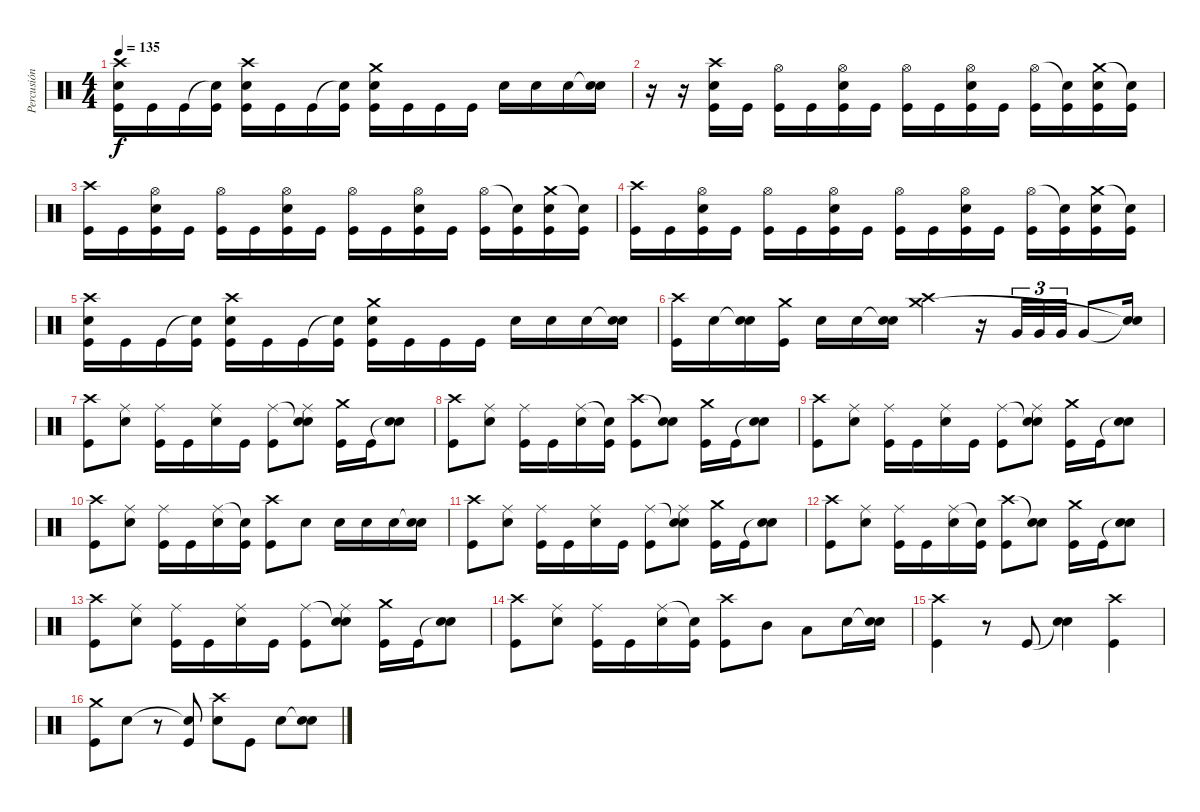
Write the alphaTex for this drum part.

\track ("Percusión" "Percusión") {instrument percussion}
\staff {score}
\articulation defaults
\ts (4 4)
\tempo 135
\clef neutral
\ks c
("Crash high (hit)" "Snare (hit) 2" "Kick (hit)").16{dy f} "Kick (hit)".16 "Kick (hit)".16 ("Snare (hit)"{t} "Kick (hit)").16 ("Crash high (hit)" "Snare (hit) 2" "Kick (hit)").16 "Kick (hit)".16 "Kick (hit)".16 ("Snare (hit)"{t} "Kick (hit)").16 ("Crash medium (hit)" "Snare (hit) 2" "Kick (hit)").16 "Kick (hit)".16 "Kick (hit)".16 "Kick (hit)".16 "Snare (hit) 2".16 "Snare (hit) 2".16 "Snare (hit) 2".16 ("Snare (hit)"{t} "Snare (hit) 2").16 |
r.16 r.16 ("Crash high (hit)" "Snare (hit) 2" "Kick (hit)").16 "Kick (hit)".16 ("Hi-Hat (open)" "Kick (hit)").16 "Kick (hit)".16 ("Hi-Hat (open)" "Snare (hit) 2" "Kick (hit)").16 "Kick (hit)".16 ("Hi-Hat (open)" "Kick (hit)").16 "Kick (hit)".16 ("Hi-Hat (open)" "Snare (hit) 2" "Kick (hit)").16 "Kick (hit)".16 ("Hi-Hat (open)" "Kick (hit)").16 ("Snare (hit)"{t} "Kick (hit)").16 ("Crash medium (hit)" "Snare (hit) 2" "Kick (hit)").16 ("Snare (hit)"{t} "Kick (hit)").16 |
("Crash high (hit)" "Kick (hit)").16 "Kick (hit)".16 ("Hi-Hat (open)" "Snare (hit) 2" "Kick (hit)").16 "Kick (hit)".16 ("Hi-Hat (open)" "Kick (hit)").16 "Kick (hit)".16 ("Hi-Hat (open)" "Snare (hit) 2" "Kick (hit)").16 "Kick (hit)".16 ("Hi-Hat (open)" "Kick (hit)").16 "Kick (hit)".16 ("Hi-Hat (open)" "Snare (hit) 2" "Kick (hit)").16 "Kick (hit)".16 ("Hi-Hat (open)" "Kick (hit)").16 ("Snare (hit)"{t} "Kick (hit)").16 ("Crash medium (hit)" "Snare (hit) 2" "Kick (hit)").16 ("Snare (hit)"{t} "Kick (hit)").16 |
("Crash high (hit)" "Kick (hit)").16 "Kick (hit)".16 ("Hi-Hat (open)" "Snare (hit) 2" "Kick (hit)").16 "Kick (hit)".16 ("Hi-Hat (open)" "Kick (hit)").16 "Kick (hit)".16 ("Hi-Hat (open)" "Snare (hit) 2" "Kick (hit)").16 "Kick (hit)".16 ("Hi-Hat (open)" "Kick (hit)").16 "Kick (hit)".16 ("Hi-Hat (open)" "Snare (hit) 2" "Kick (hit)").16 "Kick (hit)".16 ("Hi-Hat (open)" "Kick (hit)").16 ("Snare (hit)"{t} "Kick (hit)").16 ("Crash medium (hit)" "Snare (hit) 2" "Kick (hit)").16 ("Snare (hit)"{t} "Kick (hit)").16 |
("Crash high (hit)" "Snare (hit) 2" "Kick (hit)").16 "Kick (hit)".16 "Kick (hit)".16 ("Snare (hit)"{t} "Kick (hit)").16 ("Crash high (hit)" "Snare (hit) 2" "Kick (hit)").16 "Kick (hit)".16 "Kick (hit)".16 ("Snare (hit)"{t} "Kick (hit)").16 ("Crash medium (hit)" "Snare (hit) 2" "Kick (hit)").16 "Kick (hit)".16 "Kick (hit)".16 "Kick (hit)".16 "Snare (hit) 2".16 "Snare (hit) 2".16 "Snare (hit) 2".16 ("Snare (hit)"{t} "Snare (hit) 2").16 |
("Crash high (hit)" "Kick (hit)").16 "Snare (hit) 2".16 ("Snare (hit)"{t} "Snare (hit) 2").16 ("Crash medium (hit)" "Kick (hit)").16 "Snare (hit) 2".16 "Snare (hit) 2".16 ("Snare (hit)"{t} "Snare (hit) 2").16 ("Crash high (hit)" "Crash medium (hit)").4 r.16 "Very Low Tom (hit)".32{tu (3 2)} "Very Low Tom (hit)".32{tu (3 2)} "Very Low Tom (hit)".32{tu (3 2)} "Very Low Tom (hit)".8 ("Snare (hit)"{t} "Snare (hit)"{t}).16 |
("Crash high (hit)" "Kick (hit)").8 ("Ride (middle)" "Snare (hit) 2").8 ("Ride (middle)" "Kick (hit)").16 "Kick (hit)".16 ("Ride (middle)" "Snare (hit) 2").16 "Kick (hit)".16 ("Ride (middle)" "Kick (hit)").8 ("Snare (hit)"{t} "Ride (middle)" "Snare (hit) 2").8 ("Crash medium (hit)" "Kick (hit)").16 "Kick (hit)".16 ("Snare (hit)"{t} "Snare (hit) 2").8 |
("Crash high (hit)" "Kick (hit)").8 ("Ride (middle)" "Snare (hit) 2").8 ("Ride (middle)" "Kick (hit)").16 "Kick (hit)".16 ("Ride (middle)" "Snare (hit) 2").16 ("Snare (hit)"{t} "Kick (hit)").16 ("Crash high (hit)" "Kick (hit)").8 ("Snare (hit)"{t} "Snare (hit) 2").8 ("Crash medium (hit)" "Kick (hit)").16 "Kick (hit)".16 ("Snare (hit)"{t} "Snare (hit) 2").8 |
("Crash high (hit)" "Kick (hit)").8 ("Ride (middle)" "Snare (hit) 2").8 ("Ride (middle)" "Kick (hit)").16 "Kick (hit)".16 ("Ride (middle)" "Snare (hit) 2").16 "Kick (hit)".16 ("Ride (middle)" "Kick (hit)").8 ("Snare (hit)"{t} "Ride (middle)" "Snare (hit) 2").8 ("Crash medium (hit)" "Kick (hit)").16 "Kick (hit)".16 ("Snare (hit)"{t} "Snare (hit) 2").8 |
("Crash high (hit)" "Kick (hit)").8 ("Ride (middle)" "Snare (hit) 2").8 ("Ride (middle)" "Kick (hit)").16 "Kick (hit)".16 ("Ride (middle)" "Snare (hit) 2").16 ("Snare (hit)"{t} "Kick (hit)").16 ("Crash high (hit)" "Kick (hit)").8 "Snare (hit) 2".8 "Snare (hit) 2".16 "Snare (hit) 2".16 "Snare (hit) 2".16 ("Snare (hit)"{t} "Snare (hit) 2").16 |
("Crash high (hit)" "Kick (hit)").8 ("Ride (middle)" "Snare (hit) 2").8 ("Ride (middle)" "Kick (hit)").16 "Kick (hit)".16 ("Ride (middle)" "Snare (hit) 2").16 "Kick (hit)".16 ("Ride (middle)" "Kick (hit)").8 ("Snare (hit)"{t} "Ride (middle)" "Snare (hit) 2").8 ("Crash medium (hit)" "Kick (hit)").16 "Kick (hit)".16 ("Snare (hit)"{t} "Snare (hit) 2").8 |
("Crash high (hit)" "Kick (hit)").8 ("Ride (middle)" "Snare (hit) 2").8 ("Ride (middle)" "Kick (hit)").16 "Kick (hit)".16 ("Ride (middle)" "Snare (hit) 2").16 ("Snare (hit)"{t} "Kick (hit)").16 ("Crash high (hit)" "Kick (hit)").8 ("Snare (hit)"{t} "Snare (hit) 2").8 ("Crash medium (hit)" "Kick (hit)").16 "Kick (hit)".16 ("Snare (hit)"{t} "Snare (hit) 2").8 |
("Crash high (hit)" "Kick (hit)").8 ("Ride (middle)" "Snare (hit) 2").8 ("Ride (middle)" "Kick (hit)").16 "Kick (hit)".16 ("Ride (middle)" "Snare (hit) 2").16 "Kick (hit)".16 ("Ride (middle)" "Kick (hit)").8 ("Snare (hit)"{t} "Ride (middle)" "Snare (hit) 2").8 ("Crash medium (hit)" "Kick (hit)").16 "Kick (hit)".16 ("Snare (hit)"{t} "Snare (hit) 2").8 |
("Crash high (hit)" "Kick (hit)").8 ("Ride (middle)" "Snare (hit) 2").8 ("Ride (middle)" "Kick (hit)").16 "Kick (hit)".16 ("Ride (middle)" "Snare (hit) 2").16 ("Snare (hit)"{t} "Kick (hit)").16 ("Crash high (hit)" "Kick (hit)").8 "Mid Tom (hit)".8 "Low Tom (hit)".8 "Snare (hit) 2".16 ("Snare (hit)"{t} "Snare (hit) 2").16 |
("Crash high (hit)" "Kick (hit)").4 r.8 "Kick (hit)".8 ("Snare (hit)"{t} "Snare (hit) 2").4 ("Crash high (hit)" "Kick (hit)").4 |
("Crash medium (hit)" "Kick (hit)").8 "Snare (hit) 2".8 r.8 ("Snare (hit)"{t} "Kick (hit)").8 ("Crash high (hit)" "Snare (hit) 2").8 "Kick (hit)".8 "Snare (hit) 2".8 ("Snare (hit)"{t} "Snare (hit) 2").8
